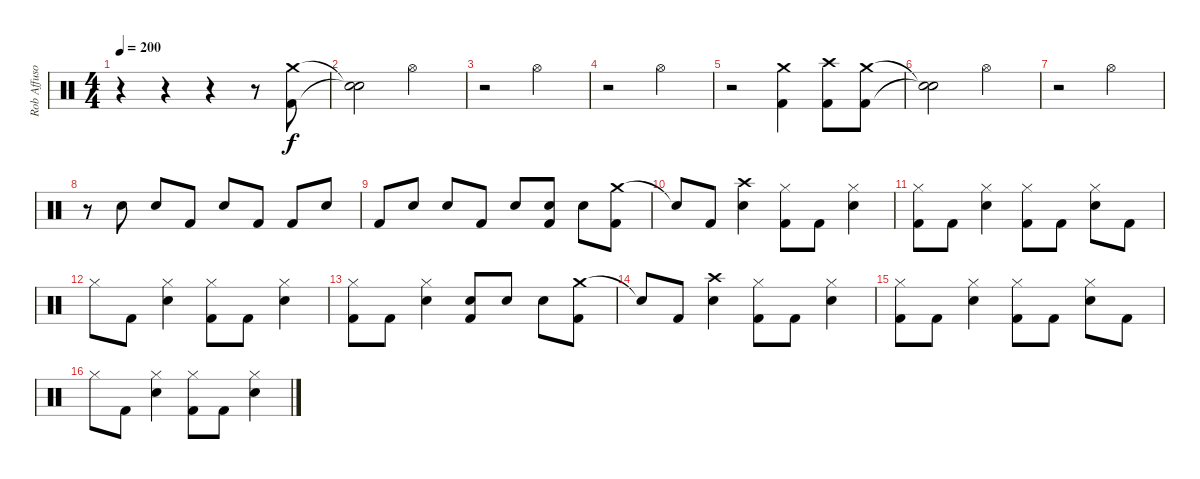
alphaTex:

\track ("Rob Affuso - Drums" "Rob Affuso") {instrument percussion}
\staff {score}
\articulation defaults
\ts (4 4)
\tempo 200
\clef neutral
\ks c
r.4{dy f} r.4 r.4 r.8 ("Crash medium (hit)" "Kick (hit) 2").8 |
("Snare (hit)"{t} "Snare (hit)"{t}).2 "Hi-Hat (open)".2 |
r.2 "Hi-Hat (open)".2 |
r.2 "Hi-Hat (open)".2 |
r.2 ("Crash medium (hit)" "Kick (hit) 2").4 ("Crash high (hit)" "Kick (hit) 2").8 ("Crash medium (hit)" "Kick (hit) 2").8 |
("Snare (hit)"{t} "Snare (hit)"{t}).2 "Hi-Hat (open)".2 |
r.2 "Hi-Hat (open)".2 |
r.8 "Snare (hit) 2".8 "Snare (hit) 2".8 "Kick (hit) 2".8 "Snare (hit) 2".8 "Kick (hit) 2".8 "Kick (hit) 2".8 "Snare (hit) 2".8 |
"Kick (hit) 2".8 "Snare (hit) 2".8 "Snare (hit) 2".8 "Kick (hit) 2".8 "Snare (hit) 2".8 ("Snare (hit) 2" "Kick (hit) 2").8 "Snare (hit) 2".8 ("Crash medium (hit)" "Kick (hit) 2").8 |
"Snare (hit)"{t}.8 "Kick (hit) 2".8 ("Crash high (hit)" "Snare (hit) 2").4 ("Hi-Hat (closed)" "Kick (hit) 2").8 "Kick (hit) 2".8 ("Hi-Hat (closed)" "Snare (hit) 2").4 |
("Hi-Hat (closed)" "Kick (hit) 2").8 "Kick (hit) 2".8 ("Hi-Hat (closed)" "Snare (hit) 2").4 ("Hi-Hat (closed)" "Kick (hit) 2").8 "Kick (hit) 2".8 ("Hi-Hat (closed)" "Snare (hit) 2").8 "Kick (hit) 2".8 |
"Hi-Hat (closed)".8 "Kick (hit) 2".8 ("Hi-Hat (closed)" "Snare (hit) 2").4 ("Hi-Hat (closed)" "Kick (hit) 2").8 "Kick (hit) 2".8 ("Hi-Hat (closed)" "Snare (hit) 2").4 |
("Hi-Hat (closed)" "Kick (hit) 2").8 "Kick (hit) 2".8 ("Hi-Hat (closed)" "Snare (hit) 2").4 ("Snare (hit) 2" "Kick (hit) 2").8 "Snare (hit) 2".8 "Snare (hit) 2".8 ("Crash medium (hit)" "Kick (hit) 2").8 |
"Snare (hit)"{t}.8 "Kick (hit) 2".8 ("Crash high (hit)" "Snare (hit) 2").4 ("Hi-Hat (closed)" "Kick (hit) 2").8 "Kick (hit) 2".8 ("Hi-Hat (closed)" "Snare (hit) 2").4 |
("Hi-Hat (closed)" "Kick (hit) 2").8 "Kick (hit) 2".8 ("Hi-Hat (closed)" "Snare (hit) 2").4 ("Hi-Hat (closed)" "Kick (hit) 2").8 "Kick (hit) 2".8 ("Hi-Hat (closed)" "Snare (hit) 2").8 "Kick (hit) 2".8 |
"Hi-Hat (closed)".8 "Kick (hit) 2".8 ("Hi-Hat (closed)" "Snare (hit) 2").4 ("Hi-Hat (closed)" "Kick (hit) 2").8 "Kick (hit) 2".8 ("Hi-Hat (closed)" "Snare (hit) 2").4
